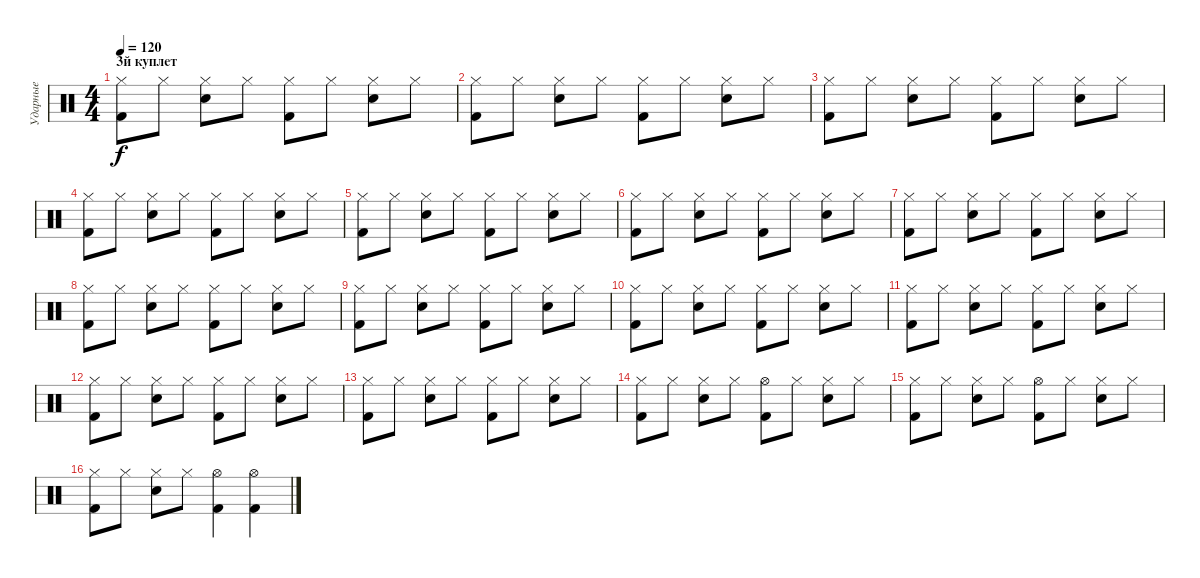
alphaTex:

\track ("Ударные" "Ударные") {instrument percussion}
\staff {score}
\articulation defaults
\ts (4 4)
\section ("" "3й куплет")
\tempo 120
\clef neutral
\ks c
("Hi-Hat (closed)" "Kick (hit) 2").8{dy f} "Hi-Hat (closed)".8 ("Hi-Hat (closed)" "Snare (hit) 2").8 "Hi-Hat (closed)".8 ("Hi-Hat (closed)" "Kick (hit) 2").8 "Hi-Hat (closed)".8 ("Hi-Hat (closed)" "Snare (hit) 2").8 "Hi-Hat (closed)".8 |
("Hi-Hat (closed)" "Kick (hit) 2").8 "Hi-Hat (closed)".8 ("Hi-Hat (closed)" "Snare (hit) 2").8 "Hi-Hat (closed)".8 ("Hi-Hat (closed)" "Kick (hit) 2").8 "Hi-Hat (closed)".8 ("Hi-Hat (closed)" "Snare (hit) 2").8 "Hi-Hat (closed)".8 |
("Hi-Hat (closed)" "Kick (hit) 2").8 "Hi-Hat (closed)".8 ("Hi-Hat (closed)" "Snare (hit) 2").8 "Hi-Hat (closed)".8 ("Hi-Hat (closed)" "Kick (hit) 2").8 "Hi-Hat (closed)".8 ("Hi-Hat (closed)" "Snare (hit) 2").8 "Hi-Hat (closed)".8 |
("Hi-Hat (closed)" "Kick (hit) 2").8 "Hi-Hat (closed)".8 ("Hi-Hat (closed)" "Snare (hit) 2").8 "Hi-Hat (closed)".8 ("Hi-Hat (closed)" "Kick (hit) 2").8 "Hi-Hat (closed)".8 ("Hi-Hat (closed)" "Snare (hit) 2").8 "Hi-Hat (closed)".8 |
("Hi-Hat (closed)" "Kick (hit) 2").8 "Hi-Hat (closed)".8 ("Hi-Hat (closed)" "Snare (hit) 2").8 "Hi-Hat (closed)".8 ("Hi-Hat (closed)" "Kick (hit) 2").8 "Hi-Hat (closed)".8 ("Hi-Hat (closed)" "Snare (hit) 2").8 "Hi-Hat (closed)".8 |
("Hi-Hat (closed)" "Kick (hit) 2").8 "Hi-Hat (closed)".8 ("Hi-Hat (closed)" "Snare (hit) 2").8 "Hi-Hat (closed)".8 ("Hi-Hat (closed)" "Kick (hit) 2").8 "Hi-Hat (closed)".8 ("Hi-Hat (closed)" "Snare (hit) 2").8 "Hi-Hat (closed)".8 |
("Hi-Hat (closed)" "Kick (hit) 2").8 "Hi-Hat (closed)".8 ("Hi-Hat (closed)" "Snare (hit) 2").8 "Hi-Hat (closed)".8 ("Hi-Hat (closed)" "Kick (hit) 2").8 "Hi-Hat (closed)".8 ("Hi-Hat (closed)" "Snare (hit) 2").8 "Hi-Hat (closed)".8 |
("Hi-Hat (closed)" "Kick (hit) 2").8 "Hi-Hat (closed)".8 ("Hi-Hat (closed)" "Snare (hit) 2").8 "Hi-Hat (closed)".8 ("Hi-Hat (closed)" "Kick (hit) 2").8 "Hi-Hat (closed)".8 ("Hi-Hat (closed)" "Snare (hit) 2").8 "Hi-Hat (closed)".8 |
("Hi-Hat (closed)" "Kick (hit) 2").8 "Hi-Hat (closed)".8 ("Hi-Hat (closed)" "Snare (hit) 2").8 "Hi-Hat (closed)".8 ("Hi-Hat (closed)" "Kick (hit) 2").8 "Hi-Hat (closed)".8 ("Hi-Hat (closed)" "Snare (hit) 2").8 "Hi-Hat (closed)".8 |
("Hi-Hat (closed)" "Kick (hit) 2").8 "Hi-Hat (closed)".8 ("Hi-Hat (closed)" "Snare (hit) 2").8 "Hi-Hat (closed)".8 ("Hi-Hat (closed)" "Kick (hit) 2").8 "Hi-Hat (closed)".8 ("Hi-Hat (closed)" "Snare (hit) 2").8 "Hi-Hat (closed)".8 |
("Hi-Hat (closed)" "Kick (hit) 2").8 "Hi-Hat (closed)".8 ("Hi-Hat (closed)" "Snare (hit) 2").8 "Hi-Hat (closed)".8 ("Hi-Hat (closed)" "Kick (hit) 2").8 "Hi-Hat (closed)".8 ("Hi-Hat (closed)" "Snare (hit) 2").8 "Hi-Hat (closed)".8 |
("Hi-Hat (closed)" "Kick (hit) 2").8 "Hi-Hat (closed)".8 ("Hi-Hat (closed)" "Snare (hit) 2").8 "Hi-Hat (closed)".8 ("Hi-Hat (closed)" "Kick (hit) 2").8 "Hi-Hat (closed)".8 ("Hi-Hat (closed)" "Snare (hit) 2").8 "Hi-Hat (closed)".8 |
("Hi-Hat (closed)" "Kick (hit) 2").8 "Hi-Hat (closed)".8 ("Hi-Hat (closed)" "Snare (hit) 2").8 "Hi-Hat (closed)".8 ("Hi-Hat (closed)" "Kick (hit) 2").8 "Hi-Hat (closed)".8 ("Hi-Hat (closed)" "Snare (hit) 2").8 "Hi-Hat (closed)".8 |
("Hi-Hat (closed)" "Kick (hit) 2").8 "Hi-Hat (closed)".8 ("Hi-Hat (closed)" "Snare (hit) 2").8 "Hi-Hat (closed)".8 ("Hi-Hat (open)" "Kick (hit) 2").8 "Hi-Hat (closed)".8 ("Hi-Hat (closed)" "Snare (hit) 2").8 "Hi-Hat (closed)".8 |
("Hi-Hat (closed)" "Kick (hit) 2").8 "Hi-Hat (closed)".8 ("Hi-Hat (closed)" "Snare (hit) 2").8 "Hi-Hat (closed)".8 ("Hi-Hat (open)" "Kick (hit) 2").8 "Hi-Hat (closed)".8 ("Hi-Hat (closed)" "Snare (hit) 2").8 "Hi-Hat (closed)".8 |
("Hi-Hat (closed)" "Kick (hit) 2").8 "Hi-Hat (closed)".8 ("Hi-Hat (closed)" "Snare (hit) 2").8 "Hi-Hat (closed)".8 ("Hi-Hat (open)" "Kick (hit) 2").4 ("Hi-Hat (open)" "Kick (hit) 2").4
